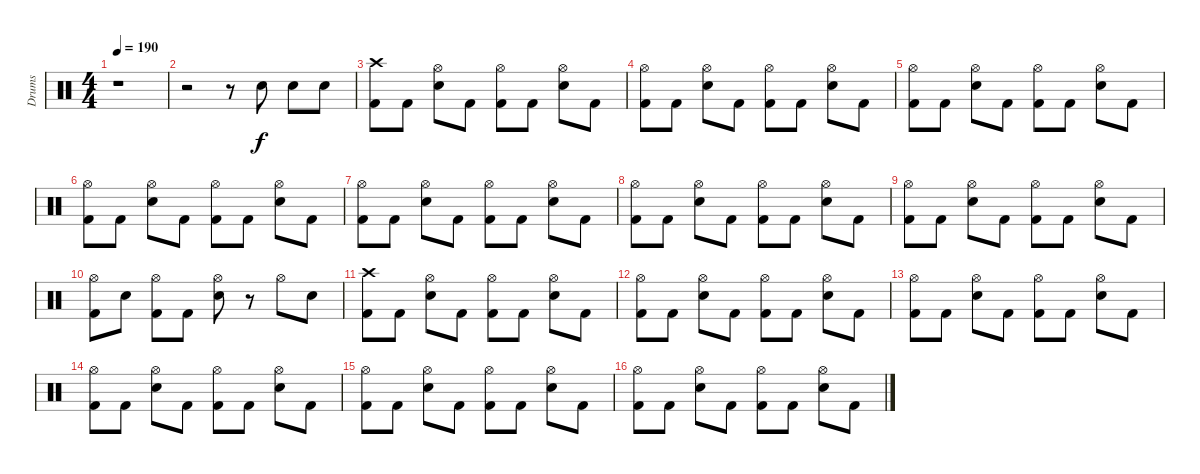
\track ("Drums" "Drums") {instrument percussion}
\staff {score}
\articulation defaults
\ts (4 4)
\tempo 190
\clef neutral
\ks c
r.1{dy f} |
r.2 r.8 "Snare (hit) 2".8 "Snare (hit) 2".8 "Snare (hit) 2".8 |
("Kick (hit) 2" "Crash high (hit)").8 "Kick (hit) 2".8 ("Snare (hit) 2" "Hi-Hat (open)").8 "Kick (hit) 2".8 ("Kick (hit) 2" "Hi-Hat (open)").8 "Kick (hit) 2".8 ("Snare (hit) 2" "Hi-Hat (open)").8 "Kick (hit) 2".8 |
("Kick (hit) 2" "Hi-Hat (open)").8 "Kick (hit) 2".8 ("Snare (hit) 2" "Hi-Hat (open)").8 "Kick (hit) 2".8 ("Kick (hit) 2" "Hi-Hat (open)").8 "Kick (hit) 2".8 ("Snare (hit) 2" "Hi-Hat (open)").8 "Kick (hit) 2".8 |
("Kick (hit) 2" "Hi-Hat (open)").8 "Kick (hit) 2".8 ("Snare (hit) 2" "Hi-Hat (open)").8 "Kick (hit) 2".8 ("Kick (hit) 2" "Hi-Hat (open)").8 "Kick (hit) 2".8 ("Snare (hit) 2" "Hi-Hat (open)").8 "Kick (hit) 2".8 |
("Kick (hit) 2" "Hi-Hat (open)").8 "Kick (hit) 2".8 ("Snare (hit) 2" "Hi-Hat (open)").8 "Kick (hit) 2".8 ("Kick (hit) 2" "Hi-Hat (open)").8 "Kick (hit) 2".8 ("Snare (hit) 2" "Hi-Hat (open)").8 "Kick (hit) 2".8 |
("Kick (hit) 2" "Hi-Hat (open)").8 "Kick (hit) 2".8 ("Snare (hit) 2" "Hi-Hat (open)").8 "Kick (hit) 2".8 ("Kick (hit) 2" "Hi-Hat (open)").8 "Kick (hit) 2".8 ("Snare (hit) 2" "Hi-Hat (open)").8 "Kick (hit) 2".8 |
("Kick (hit) 2" "Hi-Hat (open)").8{volume 15} "Kick (hit) 2".8 ("Snare (hit) 2" "Hi-Hat (open)").8 "Kick (hit) 2".8 ("Kick (hit) 2" "Hi-Hat (open)").8 "Kick (hit) 2".8 ("Snare (hit) 2" "Hi-Hat (open)").8 "Kick (hit) 2".8 |
("Kick (hit) 2" "Hi-Hat (open)").8{volume 15} "Kick (hit) 2".8 ("Snare (hit) 2" "Hi-Hat (open)").8 "Kick (hit) 2".8 ("Kick (hit) 2" "Hi-Hat (open)").8 "Kick (hit) 2".8 ("Snare (hit) 2" "Hi-Hat (open)").8 "Kick (hit) 2".8 |
("Kick (hit) 2" "Hi-Hat (open)").8{volume 15} "Snare (hit) 2".8 ("Kick (hit) 2" "Hi-Hat (open)").8 "Kick (hit) 2".8 ("Snare (hit) 2" "Hi-Hat (open)").8 r.8 "Hi-Hat (open)".8 "Snare (hit) 2".8 |
("Kick (hit) 2" "Crash high (hit)").8{volume 15} "Kick (hit) 2".8 ("Snare (hit) 2" "Hi-Hat (open)").8 "Kick (hit) 2".8 ("Kick (hit) 2" "Hi-Hat (open)").8 "Kick (hit) 2".8 ("Snare (hit) 2" "Hi-Hat (open)").8 "Kick (hit) 2".8 |
("Kick (hit) 2" "Hi-Hat (open)").8{volume 15} "Kick (hit) 2".8 ("Snare (hit) 2" "Hi-Hat (open)").8 "Kick (hit) 2".8 ("Kick (hit) 2" "Hi-Hat (open)").8 "Kick (hit) 2".8 ("Snare (hit) 2" "Hi-Hat (open)").8 "Kick (hit) 2".8 |
("Kick (hit) 2" "Hi-Hat (open)").8{volume 15} "Kick (hit) 2".8 ("Snare (hit) 2" "Hi-Hat (open)").8 "Kick (hit) 2".8 ("Kick (hit) 2" "Hi-Hat (open)").8 "Kick (hit) 2".8 ("Snare (hit) 2" "Hi-Hat (open)").8 "Kick (hit) 2".8 |
("Kick (hit) 2" "Hi-Hat (open)").8{volume 15} "Kick (hit) 2".8 ("Snare (hit) 2" "Hi-Hat (open)").8 "Kick (hit) 2".8 ("Kick (hit) 2" "Hi-Hat (open)").8 "Kick (hit) 2".8 ("Snare (hit) 2" "Hi-Hat (open)").8 "Kick (hit) 2".8 |
("Kick (hit) 2" "Hi-Hat (open)").8{volume 15} "Kick (hit) 2".8 ("Snare (hit) 2" "Hi-Hat (open)").8 "Kick (hit) 2".8 ("Kick (hit) 2" "Hi-Hat (open)").8 "Kick (hit) 2".8 ("Snare (hit) 2" "Hi-Hat (open)").8 "Kick (hit) 2".8 |
("Kick (hit) 2" "Hi-Hat (open)").8{volume 15} "Kick (hit) 2".8 ("Snare (hit) 2" "Hi-Hat (open)").8 "Kick (hit) 2".8 ("Kick (hit) 2" "Hi-Hat (open)").8 "Kick (hit) 2".8 ("Snare (hit) 2" "Hi-Hat (open)").8 "Kick (hit) 2".8
